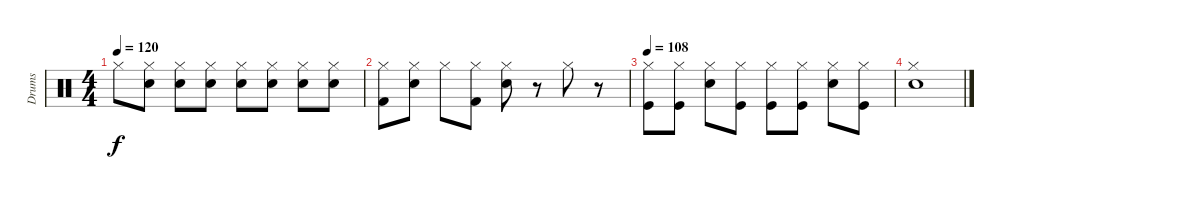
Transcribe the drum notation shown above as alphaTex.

\track ("Drums" "Drums") {instrument percussion}
\staff {score}
\articulation defaults
\ts (4 4)
\tempo 120
\clef neutral
\ks c "Hi-Hat (closed)".8{dy f}
("Hi-Hat (closed)" "Snare (hit) 2").8 ("Hi-Hat (closed)" "Snare (hit) 2").8 ("Hi-Hat (closed)" "Snare (hit) 2").8 ("Hi-Hat (closed)" "Snare (hit) 2").8 ("Hi-Hat (closed)" "Snare (hit) 2").8 ("Hi-Hat (closed)" "Snare (hit) 2").8 ("Hi-Hat (closed)" "Snare (hit) 2").8 |
("Hi-Hat (closed)" "Kick (hit) 2").8 ("Hi-Hat (closed)" "Snare (hit) 2").8 "Hi-Hat (closed)".8 ("Hi-Hat (closed)" "Kick (hit) 2").8 ("Hi-Hat (closed)" "Snare (hit) 2").8 r.8 "Hi-Hat (closed)".8 r.8 |
\tempo 108
("Hi-Hat (closed)" "Kick (hit)").8 ("Hi-Hat (closed)" "Kick (hit)").8 ("Hi-Hat (closed)" "Snare (hit) 2").8 ("Hi-Hat (closed)" "Kick (hit)").8 ("Hi-Hat (closed)" "Kick (hit)").8 ("Hi-Hat (closed)" "Kick (hit)").8 ("Hi-Hat (closed)" "Snare (hit) 2").8 ("Hi-Hat (closed)" "Kick (hit)").8 |
("Hi-Hat (closed)" "Snare (hit) 2").1
